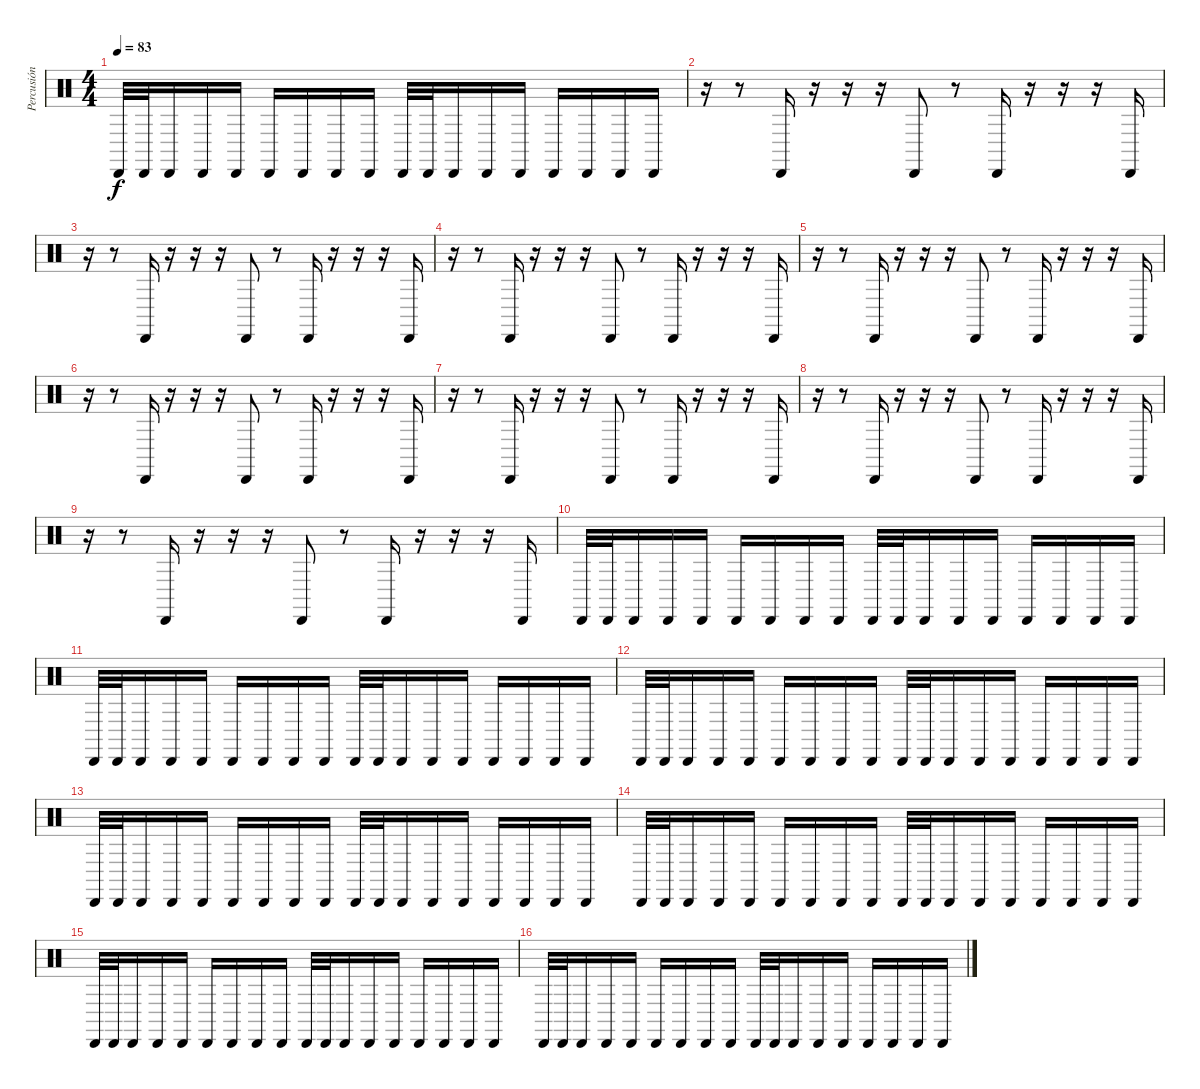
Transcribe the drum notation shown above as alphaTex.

\track ("Percusión" "Percusión") {instrument percussion}
\staff {score}
\articulation defaults
\ts (4 4)
\tempo 83
\clef neutral
\ks c "Cabasa (hit)".32{dy f} "Cabasa (hit)".32 "Cabasa (hit)".16 "Cabasa (hit)".16 "Cabasa (hit)".16 "Cabasa (hit)".16 "Cabasa (hit)".16 "Cabasa (hit)".16 "Cabasa (hit)".16 "Cabasa (hit)".32 "Cabasa (hit)".32 "Cabasa (hit)".16 "Cabasa (hit)".16 "Cabasa (hit)".16 "Cabasa (hit)".16 "Cabasa (hit)".16 "Cabasa (hit)".16 "Cabasa (hit)".16
|
r.16 r.8 "Cabasa (hit)".16 r.16 r.16 r.16 "Cabasa (hit)".8 r.8 "Cabasa (hit)".16 r.16 r.16 r.16 "Cabasa (hit)".16 |
r.16 r.8 "Cabasa (hit)".16 r.16 r.16 r.16 "Cabasa (hit)".8 r.8 "Cabasa (hit)".16 r.16 r.16 r.16 "Cabasa (hit)".16 |
r.16 r.8 "Cabasa (hit)".16 r.16 r.16 r.16 "Cabasa (hit)".8 r.8 "Cabasa (hit)".16 r.16 r.16 r.16 "Cabasa (hit)".16 |
r.16 r.8 "Cabasa (hit)".16 r.16 r.16 r.16 "Cabasa (hit)".8 r.8 "Cabasa (hit)".16 r.16 r.16 r.16 "Cabasa (hit)".16 |
r.16 r.8 "Cabasa (hit)".16 r.16 r.16 r.16 "Cabasa (hit)".8 r.8 "Cabasa (hit)".16 r.16 r.16 r.16 "Cabasa (hit)".16 |
r.16 r.8 "Cabasa (hit)".16 r.16 r.16 r.16 "Cabasa (hit)".8 r.8 "Cabasa (hit)".16 r.16 r.16 r.16 "Cabasa (hit)".16 |
r.16 r.8 "Cabasa (hit)".16 r.16 r.16 r.16 "Cabasa (hit)".8 r.8 "Cabasa (hit)".16 r.16 r.16 r.16 "Cabasa (hit)".16 |
r.16 r.8 "Cabasa (hit)".16 r.16 r.16 r.16 "Cabasa (hit)".8 r.8 "Cabasa (hit)".16 r.16 r.16 r.16 "Cabasa (hit)".16 |
"Cabasa (hit)".32 "Cabasa (hit)".32 "Cabasa (hit)".16 "Cabasa (hit)".16 "Cabasa (hit)".16 "Cabasa (hit)".16 "Cabasa (hit)".16 "Cabasa (hit)".16 "Cabasa (hit)".16 "Cabasa (hit)".32 "Cabasa (hit)".32 "Cabasa (hit)".16 "Cabasa (hit)".16 "Cabasa (hit)".16 "Cabasa (hit)".16 "Cabasa (hit)".16 "Cabasa (hit)".16 "Cabasa (hit)".16 |
"Cabasa (hit)".32 "Cabasa (hit)".32 "Cabasa (hit)".16 "Cabasa (hit)".16 "Cabasa (hit)".16 "Cabasa (hit)".16 "Cabasa (hit)".16 "Cabasa (hit)".16 "Cabasa (hit)".16 "Cabasa (hit)".32 "Cabasa (hit)".32 "Cabasa (hit)".16 "Cabasa (hit)".16 "Cabasa (hit)".16 "Cabasa (hit)".16 "Cabasa (hit)".16 "Cabasa (hit)".16 "Cabasa (hit)".16 |
"Cabasa (hit)".32 "Cabasa (hit)".32 "Cabasa (hit)".16 "Cabasa (hit)".16 "Cabasa (hit)".16 "Cabasa (hit)".16 "Cabasa (hit)".16 "Cabasa (hit)".16 "Cabasa (hit)".16 "Cabasa (hit)".32 "Cabasa (hit)".32 "Cabasa (hit)".16 "Cabasa (hit)".16 "Cabasa (hit)".16 "Cabasa (hit)".16 "Cabasa (hit)".16 "Cabasa (hit)".16 "Cabasa (hit)".16 |
"Cabasa (hit)".32 "Cabasa (hit)".32 "Cabasa (hit)".16 "Cabasa (hit)".16 "Cabasa (hit)".16 "Cabasa (hit)".16 "Cabasa (hit)".16 "Cabasa (hit)".16 "Cabasa (hit)".16 "Cabasa (hit)".32 "Cabasa (hit)".32 "Cabasa (hit)".16 "Cabasa (hit)".16 "Cabasa (hit)".16 "Cabasa (hit)".16 "Cabasa (hit)".16 "Cabasa (hit)".16 "Cabasa (hit)".16 |
"Cabasa (hit)".32 "Cabasa (hit)".32 "Cabasa (hit)".16 "Cabasa (hit)".16 "Cabasa (hit)".16 "Cabasa (hit)".16 "Cabasa (hit)".16 "Cabasa (hit)".16 "Cabasa (hit)".16 "Cabasa (hit)".32 "Cabasa (hit)".32 "Cabasa (hit)".16 "Cabasa (hit)".16 "Cabasa (hit)".16 "Cabasa (hit)".16 "Cabasa (hit)".16 "Cabasa (hit)".16 "Cabasa (hit)".16 |
"Cabasa (hit)".32 "Cabasa (hit)".32 "Cabasa (hit)".16 "Cabasa (hit)".16 "Cabasa (hit)".16 "Cabasa (hit)".16 "Cabasa (hit)".16 "Cabasa (hit)".16 "Cabasa (hit)".16 "Cabasa (hit)".32 "Cabasa (hit)".32 "Cabasa (hit)".16 "Cabasa (hit)".16 "Cabasa (hit)".16 "Cabasa (hit)".16 "Cabasa (hit)".16 "Cabasa (hit)".16 "Cabasa (hit)".16 |
"Cabasa (hit)".32 "Cabasa (hit)".32 "Cabasa (hit)".16 "Cabasa (hit)".16 "Cabasa (hit)".16 "Cabasa (hit)".16 "Cabasa (hit)".16 "Cabasa (hit)".16 "Cabasa (hit)".16 "Cabasa (hit)".32 "Cabasa (hit)".32 "Cabasa (hit)".16 "Cabasa (hit)".16 "Cabasa (hit)".16 "Cabasa (hit)".16 "Cabasa (hit)".16 "Cabasa (hit)".16 "Cabasa (hit)".16
